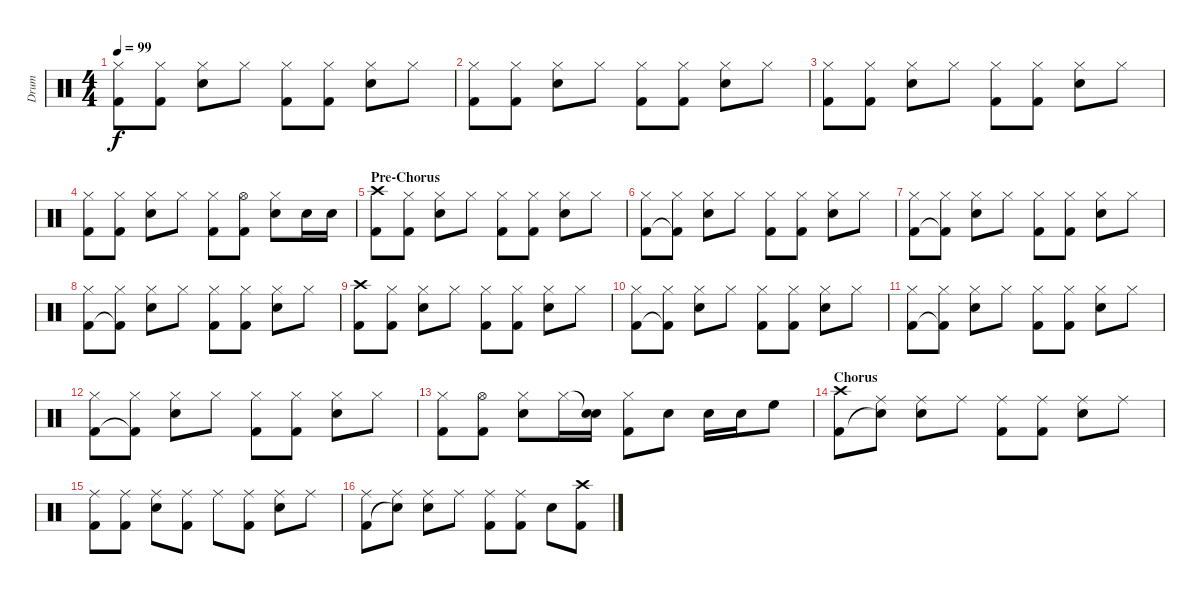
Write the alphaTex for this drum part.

\track ("Drum" "Drum") {instrument percussion}
\staff {score}
\articulation defaults
\ts (4 4)
\tempo 99
\clef neutral
\ks c
("Hi-Hat (closed)" "Kick (hit) 2").8{dy f} ("Hi-Hat (closed)" "Kick (hit) 2").8 ("Hi-Hat (closed)" "Snare (hit) 2").8 "Hi-Hat (closed)".8 ("Hi-Hat (closed)" "Kick (hit) 2").8 ("Hi-Hat (closed)" "Kick (hit) 2").8 ("Hi-Hat (closed)" "Snare (hit) 2").8 "Hi-Hat (closed)".8 |
("Hi-Hat (closed)" "Kick (hit) 2").8 ("Hi-Hat (closed)" "Kick (hit) 2").8 ("Hi-Hat (closed)" "Snare (hit) 2").8 "Hi-Hat (closed)".8 ("Hi-Hat (closed)" "Kick (hit) 2").8 ("Hi-Hat (closed)" "Kick (hit) 2").8 ("Hi-Hat (closed)" "Snare (hit) 2").8 "Hi-Hat (closed)".8 |
("Hi-Hat (closed)" "Kick (hit) 2").8 ("Hi-Hat (closed)" "Kick (hit) 2").8 ("Hi-Hat (closed)" "Snare (hit) 2").8 "Hi-Hat (closed)".8 ("Hi-Hat (closed)" "Kick (hit) 2").8 ("Hi-Hat (closed)" "Kick (hit) 2").8 ("Hi-Hat (closed)" "Snare (hit) 2").8 "Hi-Hat (closed)".8 |
("Hi-Hat (closed)" "Kick (hit) 2").8 ("Hi-Hat (closed)" "Kick (hit) 2").8 ("Hi-Hat (closed)" "Snare (hit) 2").8 "Hi-Hat (closed)".8 ("Hi-Hat (closed)" "Kick (hit) 2").8 ("Hi-Hat (open)" "Kick (hit) 2").8 ("Hi-Hat (closed)" "Snare (hit) 2").8 "Snare (hit) 2".16 "Snare (hit) 2".16 |
\section ("" "Pre-Chorus")
("Crash high (hit)" "Kick (hit) 2").8 ("Hi-Hat (closed)" "Kick (hit) 2").8 ("Hi-Hat (closed)" "Snare (hit) 2").8 "Hi-Hat (closed)".8 ("Hi-Hat (closed)" "Kick (hit) 2").8 ("Hi-Hat (closed)" "Kick (hit) 2").8 ("Hi-Hat (closed)" "Snare (hit) 2").8 "Hi-Hat (closed)".8 |
("Hi-Hat (closed)" "Kick (hit) 2").8 ("Hi-Hat (closed)" "Kick (hit) 2"{t}).8 ("Hi-Hat (closed)" "Snare (hit) 2").8 "Hi-Hat (closed)".8 ("Hi-Hat (closed)" "Kick (hit) 2").8 ("Hi-Hat (closed)" "Kick (hit) 2").8 ("Hi-Hat (closed)" "Snare (hit) 2").8 "Hi-Hat (closed)".8 |
("Hi-Hat (closed)" "Kick (hit) 2").8 ("Hi-Hat (closed)" "Kick (hit) 2"{t}).8 ("Hi-Hat (closed)" "Snare (hit) 2").8 "Hi-Hat (closed)".8 ("Hi-Hat (closed)" "Kick (hit) 2").8 ("Hi-Hat (closed)" "Kick (hit) 2").8 ("Hi-Hat (closed)" "Snare (hit) 2").8 "Hi-Hat (closed)".8 |
("Hi-Hat (closed)" "Kick (hit) 2").8 ("Hi-Hat (closed)" "Kick (hit) 2"{t}).8 ("Hi-Hat (closed)" "Snare (hit) 2").8 "Hi-Hat (closed)".8 ("Hi-Hat (closed)" "Kick (hit) 2").8 ("Hi-Hat (closed)" "Kick (hit) 2").8 ("Hi-Hat (closed)" "Snare (hit) 2").8 "Hi-Hat (closed)".8 |
("Crash high (hit)" "Kick (hit) 2").8 ("Hi-Hat (closed)" "Kick (hit) 2").8 ("Hi-Hat (closed)" "Snare (hit) 2").8 "Hi-Hat (closed)".8 ("Hi-Hat (closed)" "Kick (hit) 2").8 ("Hi-Hat (closed)" "Kick (hit) 2").8 ("Hi-Hat (closed)" "Snare (hit) 2").8 "Hi-Hat (closed)".8 |
("Hi-Hat (closed)" "Kick (hit) 2").8 ("Hi-Hat (closed)" "Kick (hit) 2"{t}).8 ("Hi-Hat (closed)" "Snare (hit) 2").8 "Hi-Hat (closed)".8 ("Hi-Hat (closed)" "Kick (hit) 2").8 ("Hi-Hat (closed)" "Kick (hit) 2").8 ("Hi-Hat (closed)" "Snare (hit) 2").8 "Hi-Hat (closed)".8 |
("Hi-Hat (closed)" "Kick (hit) 2").8 ("Hi-Hat (closed)" "Kick (hit) 2"{t}).8 ("Hi-Hat (closed)" "Snare (hit) 2").8 "Hi-Hat (closed)".8 ("Hi-Hat (closed)" "Kick (hit) 2").8 ("Hi-Hat (closed)" "Kick (hit) 2").8 ("Hi-Hat (closed)" "Snare (hit) 2").8 "Hi-Hat (closed)".8 |
("Hi-Hat (closed)" "Kick (hit) 2").8 ("Hi-Hat (closed)" "Kick (hit) 2"{t}).8 ("Hi-Hat (closed)" "Snare (hit) 2").8 "Hi-Hat (closed)".8 ("Hi-Hat (closed)" "Kick (hit) 2").8 ("Hi-Hat (closed)" "Kick (hit) 2").8 ("Hi-Hat (closed)" "Snare (hit) 2").8 "Hi-Hat (closed)".8 |
("Hi-Hat (closed)" "Kick (hit) 2").8 ("Hi-Hat (open)" "Kick (hit) 2").8 ("Hi-Hat (closed)" "Snare (hit) 2").8 "Hi-Hat (closed)".16 ("Snare (hit)"{t} "Snare (hit) 2").16 ("Hi-Hat (closed)" "Kick (hit) 2").8 "Snare (hit) 2".8 "Snare (hit) 2".16 "Snare (hit) 2".16 "High Floor Tom (hit)".8 |
\section ("" "Chorus")
("Crash high (hit)" "Kick (hit) 2").8 ("Ride (middle)" "Snare (hit)"{t}).8 ("Ride (middle)" "Snare (hit) 2").8 "Ride (middle)".8 ("Ride (middle)" "Kick (hit) 2").8 ("Ride (middle)" "Kick (hit) 2").8 ("Ride (middle)" "Snare (hit) 2").8 "Ride (middle)".8 |
("Ride (middle)" "Kick (hit) 2").8 ("Ride (middle)" "Kick (hit) 2").8 ("Ride (middle)" "Snare (hit) 2").8 ("Ride (middle)" "Kick (hit) 2").8 "Ride (middle)".8 ("Ride (middle)" "Kick (hit) 2").8 ("Ride (middle)" "Snare (hit) 2").8 "Ride (middle)".8 |
("Ride (middle)" "Kick (hit) 2").8 ("Ride (middle)" "Snare (hit)"{t}).8 ("Ride (middle)" "Snare (hit) 2").8 "Ride (middle)".8 ("Ride (middle)" "Kick (hit) 2").8 ("Ride (middle)" "Kick (hit) 2").8 "Snare (hit) 2".8 ("Crash high (hit)" "Kick (hit) 2").8
